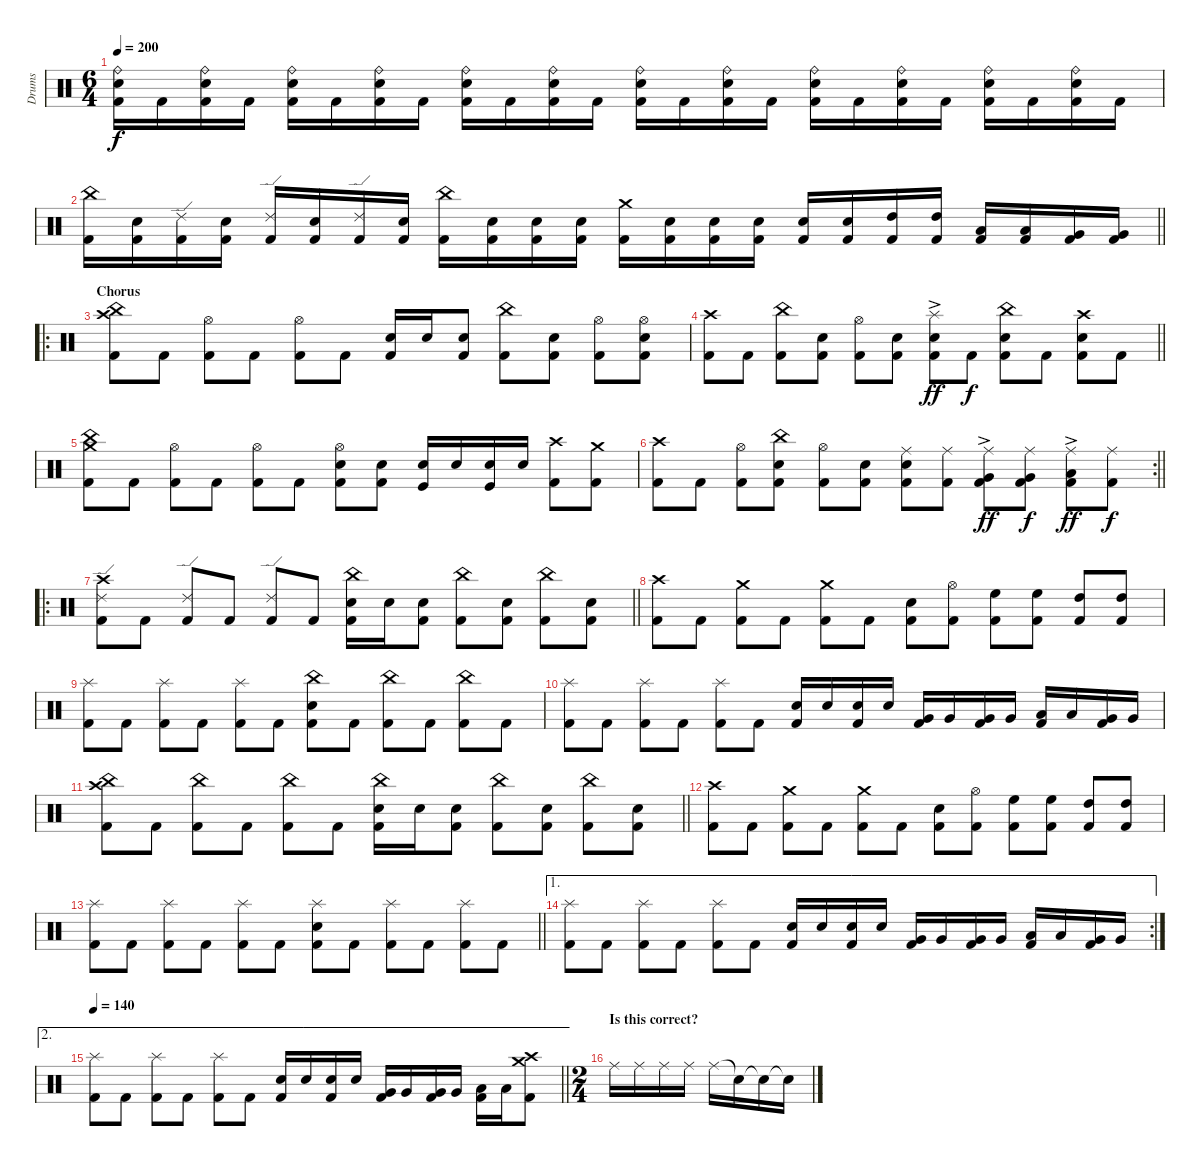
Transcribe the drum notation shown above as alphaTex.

\track ("Drums" "Drums") {mute instrument percussion}
\staff {score}
\articulation defaults
\ts (6 4)
\tempo 200
\clef neutral
\ks c
("Ride (bell)" "Electric Snare (hit)" "Kick (hit) 2").16{dy f} "Kick (hit) 2".16 ("Ride (bell)" "Electric Snare (hit)" "Kick (hit) 2").16 "Kick (hit) 2".16 ("Ride (bell)" "Electric Snare (hit)" "Kick (hit) 2").16 "Kick (hit) 2".16 ("Ride (bell)" "Electric Snare (hit)" "Kick (hit) 2").16 "Kick (hit) 2".16 ("Ride (bell)" "Electric Snare (hit)" "Kick (hit) 2").16 "Kick (hit) 2".16 ("Ride (bell)" "Electric Snare (hit)" "Kick (hit) 2").16 "Kick (hit) 2".16 ("Ride (bell)" "Electric Snare (hit)" "Kick (hit) 2").16 "Kick (hit) 2".16 ("Ride (bell)" "Electric Snare (hit)" "Kick (hit) 2").16 "Kick (hit) 2".16 ("Ride (bell)" "Electric Snare (hit)" "Kick (hit) 2").16 "Kick (hit) 2".16 ("Ride (bell)" "Electric Snare (hit)" "Kick (hit) 2").16 "Kick (hit) 2".16 ("Ride (bell)" "Electric Snare (hit)" "Kick (hit) 2").16 "Kick (hit) 2".16 ("Ride (bell)" "Electric Snare (hit)" "Kick (hit) 2").16 "Kick (hit) 2".16 |
\barLineRight lightlight
("China (hit)" "Kick (hit) 2").16 ("Electric Snare (hit)" "Kick (hit) 2").16 ("Ride (edge) 2" "Kick (hit) 2").16 ("Electric Snare (hit)" "Kick (hit) 2").16 ("Ride (edge) 2" "Kick (hit) 2").16 ("Electric Snare (hit)" "Kick (hit) 2").16 ("Ride (edge) 2" "Kick (hit) 2").16 ("Electric Snare (hit)" "Kick (hit) 2").16 ("China (hit)" "Kick (hit) 2").16 ("Electric Snare (hit)" "Kick (hit) 2").16 ("Electric Snare (hit)" "Kick (hit) 2").16 ("Electric Snare (hit)" "Kick (hit) 2").16 ("Crash medium (hit)" "Kick (hit) 2").16 ("Electric Snare (hit)" "Kick (hit) 2").16 ("Electric Snare (hit)" "Kick (hit) 2").16 ("Electric Snare (hit)" "Kick (hit) 2").16 ("Electric Snare (hit)" "Kick (hit) 2").16 ("Electric Snare (hit)" "Kick (hit) 2").16 ("High Tom (hit)" "Kick (hit) 2").16 ("High Tom (hit)" "Kick (hit) 2").16 ("Low Tom (hit)" "Kick (hit) 2").16 ("Low Tom (hit)" "Kick (hit) 2").16 ("Very Low Tom (hit)" "Kick (hit) 2").16 ("Very Low Tom (hit)" "Kick (hit) 2").16 |
\ro
\section ("" "Chorus")
("Crash high (hit)" "China (hit)" "Kick (hit) 2").8 "Kick (hit) 2".8 ("Hi-Hat (open)" "Kick (hit) 2").8 "Kick (hit) 2".8 ("Hi-Hat (open)" "Kick (hit) 2").8 "Kick (hit) 2".8 ("Electric Snare (hit)" "Kick (hit) 2").16 "Electric Snare (hit)".16 ("Electric Snare (hit)" "Kick (hit) 2").8 ("China (hit)" "Kick (hit) 2").8 ("Electric Snare (hit)" "Kick (hit) 2").8 ("Hi-Hat (open)" "Kick (hit) 2").8 ("Hi-Hat (open)" "Electric Snare (hit)" "Kick (hit) 2").8 |
\barLineRight lightlight
("Crash high (hit)" "Kick (hit) 2").8 "Kick (hit) 2".8 ("China (hit)" "Kick (hit) 2").8 ("Electric Snare (hit)" "Kick (hit) 2").8 ("Hi-Hat (open)" "Kick (hit) 2").8 ("Electric Snare (hit)" "Kick (hit) 2").8 ("Splash (hit)"{ac} "Electric Snare (hit)" "Kick (hit) 2").8{dy ff} "Kick (hit) 2".8{dy f} ("China (hit)" "Electric Snare (hit)" "Kick (hit) 2").8 "Kick (hit) 2".8 ("Crash high (hit)" "Electric Snare (hit)" "Kick (hit) 2").8 "Kick (hit) 2".8 |
("Crash medium (hit)" "China (hit)" "Kick (hit) 2").8 "Kick (hit) 2".8 ("Hi-Hat (open)" "Kick (hit) 2").8 "Kick (hit) 2".8 ("Hi-Hat (open)" "Kick (hit) 2").8 "Kick (hit) 2".8 ("Hi-Hat (open)" "Electric Snare (hit)" "Kick (hit) 2").8 ("Electric Snare (hit)" "Kick (hit) 2").8 ("Electric Snare (hit)" "Kick (hit)").16 "Electric Snare (hit)".16 ("Electric Snare (hit)" "Kick (hit)").16 "Electric Snare (hit)".16 ("Crash high (hit)" "Kick (hit) 2").8 ("Crash medium (hit)" "Kick (hit) 2").8 |
\rc 2
\barLineRight lightlight
("Crash high (hit)" "Kick (hit) 2").8 "Kick (hit) 2".8 ("Hi-Hat (open)" "Kick (hit) 2").8 ("China (hit)" "Electric Snare (hit)" "Kick (hit) 2").8 ("Hi-Hat (open)" "Kick (hit) 2").8 ("Electric Snare (hit)" "Kick (hit) 2").8 ("Ride (middle)" "Electric Snare (hit)" "Kick (hit) 2").8 ("Ride (middle)" "Kick (hit) 2").8 ("Ride (middle)" "Very Low Tom (hit)"{ac} "Kick (hit) 2").8{dy ff} ("Ride (middle)" "Very Low Tom (hit)" "Kick (hit) 2").8{dy f} ("Ride (middle)" "Low Floor Tom (hit)"{ac} "Kick (hit) 2").8{dy ff} ("Ride (middle)" "Kick (hit) 2").8{dy f} |
\ro
\barLineRight lightlight
("Crash high (hit)" "Ride (edge) 2" "Kick (hit) 2").8 "Kick (hit) 2".8 ("Ride (edge) 2" "Kick (hit) 2").8 "Kick (hit) 2".8 ("Ride (edge) 2" "Kick (hit) 2").8 "Kick (hit) 2".8 ("China (hit)" "Electric Snare (hit)" "Kick (hit) 2").16 "Electric Snare (hit)".16 ("Electric Snare (hit)" "Kick (hit) 2").8 ("China (hit)" "Kick (hit) 2").8 ("Electric Snare (hit)" "Kick (hit) 2").8 ("China (hit)" "Kick (hit) 2").8 ("Electric Snare (hit)" "Kick (hit) 2").8 |
("Crash high (hit)" "Kick (hit) 2").8 "Kick (hit) 2".8 ("Crash medium (hit)" "Kick (hit) 2").8 "Kick (hit) 2".8 ("Crash medium (hit)" "Kick (hit) 2").8 "Kick (hit) 2".8 ("Electric Snare (hit)" "Kick (hit) 2").8 ("Hi-Hat (open)" "Kick (hit) 2").8 ("High Floor Tom (hit)" "Kick (hit) 2").8 ("High Floor Tom (hit)" "Kick (hit) 2").8 ("High Tom (hit)" "Kick (hit) 2").8 ("High Tom (hit)" "Kick (hit) 2").8 |
("Splash (hit)" "Kick (hit) 2").8 "Kick (hit) 2".8 ("Splash (hit)" "Kick (hit) 2").8 "Kick (hit) 2".8 ("Splash (hit)" "Kick (hit) 2").8 "Kick (hit) 2".8 ("China (hit)" "Electric Snare (hit)" "Kick (hit) 2").8 "Kick (hit) 2".8 ("China (hit)" "Kick (hit) 2").8 "Kick (hit) 2".8 ("China (hit)" "Kick (hit) 2").8 "Kick (hit) 2".8 |
("Splash (hit)" "Kick (hit) 2").8 "Kick (hit) 2".8 ("Splash (hit)" "Kick (hit) 2").8 "Kick (hit) 2".8 ("Splash (hit)" "Kick (hit) 2").8 "Kick (hit) 2".8 ("Electric Snare (hit)" "Kick (hit) 2").16 "Electric Snare (hit)".16 ("Electric Snare (hit)" "Kick (hit) 2").16 "Electric Snare (hit)".16 ("Very Low Tom (hit)" "Kick (hit) 2").16 "Very Low Tom (hit)".16 ("Very Low Tom (hit)" "Kick (hit) 2").16 "Very Low Tom (hit)".16 ("Low Tom (hit)" "Kick (hit) 2").16 "Low Tom (hit)".16 ("Very Low Tom (hit)" "Kick (hit) 2").16 "Very Low Tom (hit)".16 |
\barLineRight lightlight
("Crash high (hit)" "China (hit)" "Kick (hit) 2").8 "Kick (hit) 2".8 ("China (hit)" "Kick (hit) 2").8 "Kick (hit) 2".8 ("China (hit)" "Kick (hit) 2").8 "Kick (hit) 2".8 ("China (hit)" "Electric Snare (hit)" "Kick (hit) 2").16 "Electric Snare (hit)".16 ("Electric Snare (hit)" "Kick (hit) 2").8 ("China (hit)" "Kick (hit) 2").8 ("Electric Snare (hit)" "Kick (hit) 2").8 ("China (hit)" "Kick (hit) 2").8 ("Electric Snare (hit)" "Kick (hit) 2").8 |
("Crash high (hit)" "Kick (hit) 2").8 "Kick (hit) 2".8 ("Crash medium (hit)" "Kick (hit) 2").8 "Kick (hit) 2".8 ("Crash medium (hit)" "Kick (hit) 2").8 "Kick (hit) 2".8 ("Electric Snare (hit)" "Kick (hit) 2").8 ("Hi-Hat (open)" "Kick (hit) 2").8 ("High Floor Tom (hit)" "Kick (hit) 2").8 ("High Floor Tom (hit)" "Kick (hit) 2").8 ("High Tom (hit)" "Kick (hit) 2").8 ("High Tom (hit)" "Kick (hit) 2").8 |
\barLineRight lightlight
("Splash (hit)" "Kick (hit) 2").8 "Kick (hit) 2".8 ("Splash (hit)" "Kick (hit) 2").8 "Kick (hit) 2".8 ("Splash (hit)" "Kick (hit) 2").8 "Kick (hit) 2".8 ("Splash (hit)" "Electric Snare (hit)" "Kick (hit) 2").8 "Kick (hit) 2".8 ("Splash (hit)" "Kick (hit) 2").8 "Kick (hit) 2".8 ("Splash (hit)" "Kick (hit) 2").8 "Kick (hit) 2".8 |
\ae 1
\rc 2
("Splash (hit)" "Kick (hit) 2").8 "Kick (hit) 2".8 ("Splash (hit)" "Kick (hit) 2").8 "Kick (hit) 2".8 ("Splash (hit)" "Kick (hit) 2").8 "Kick (hit) 2".8 ("Electric Snare (hit)" "Kick (hit) 2").16 "Electric Snare (hit)".16 ("Electric Snare (hit)" "Kick (hit) 2").16 "Electric Snare (hit)".16 ("Very Low Tom (hit)" "Kick (hit) 2").16 "Very Low Tom (hit)".16 ("Very Low Tom (hit)" "Kick (hit) 2").16 "Very Low Tom (hit)".16 ("Low Tom (hit)" "Kick (hit) 2").16 "Low Tom (hit)".16 ("Very Low Tom (hit)" "Kick (hit) 2").16 "Very Low Tom (hit)".16 |
\ae 2
\tempo 140
\barLineRight lightlight
("Splash (hit)" "Kick (hit) 2").8 "Kick (hit) 2".8 ("Splash (hit)" "Kick (hit) 2").8 "Kick (hit) 2".8 ("Splash (hit)" "Kick (hit) 2").8 "Kick (hit) 2".8 ("Electric Snare (hit)" "Kick (hit) 2").16 "Electric Snare (hit)".16 ("Electric Snare (hit)" "Kick (hit) 2").16 "Electric Snare (hit)".16 ("Very Low Tom (hit)" "Kick (hit) 2").16 "Very Low Tom (hit)".16 ("Very Low Tom (hit)" "Kick (hit) 2").16 "Very Low Tom (hit)".16 ("Low Tom (hit)" "Kick (hit) 2").16 "Low Tom (hit)".16 ("Crash high (hit)" "Crash medium (hit)" "Kick (hit) 2").8 |
\ts (2 4)
\section ("" "Is this correct?")
"Ride (middle)".16 "Ride (middle)".16 "Ride (middle)".16 "Ride (middle)".16 "Ride (middle)".16 "Snare (hit)"{t}.16 "Snare (hit)"{t}.16 "Snare (hit)"{t}.16
